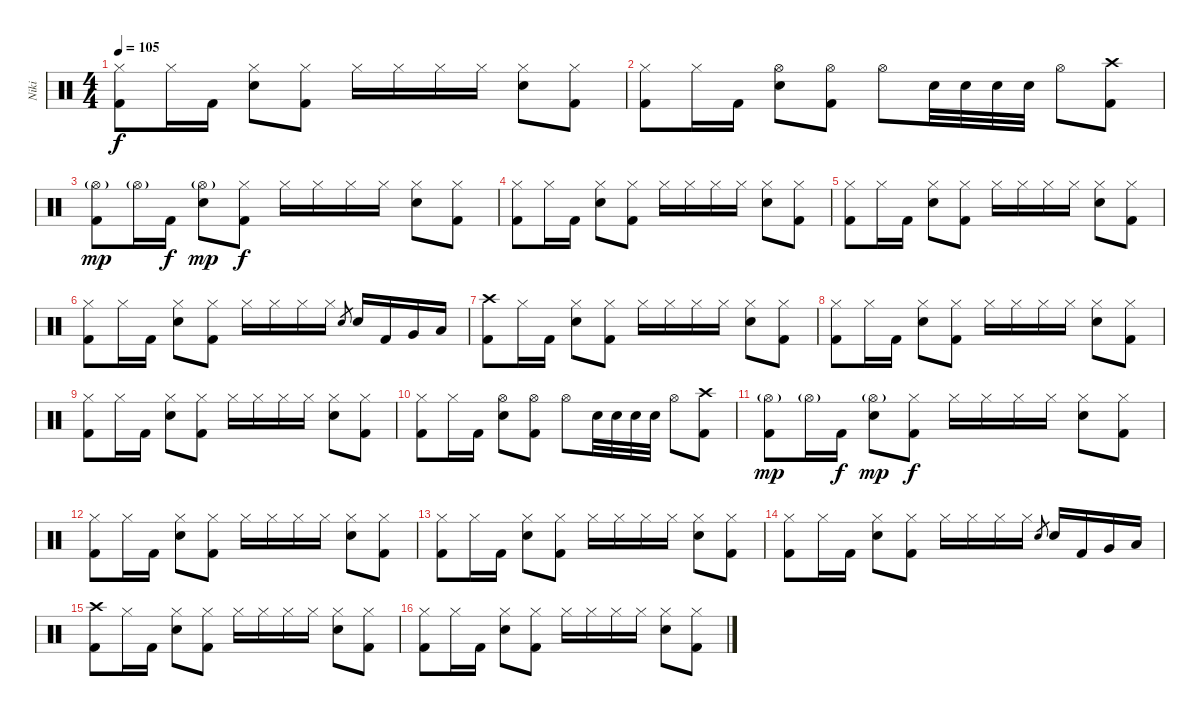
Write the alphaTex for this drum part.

\track ("Niki" "Niki") {instrument percussion}
\staff {score}
\articulation defaults
\ts (4 4)
\tempo 105
\clef neutral
\ks c
("Hi-Hat (closed)" "Kick (hit) 2").8{dy f} "Hi-Hat (closed)".16 "Kick (hit) 2".16 ("Hi-Hat (closed)" "Snare (hit) 2").8 ("Hi-Hat (closed)" "Kick (hit) 2").8 "Hi-Hat (closed)".16 "Hi-Hat (closed)".16 "Hi-Hat (closed)".16 "Hi-Hat (closed)".16 ("Hi-Hat (closed)" "Snare (hit) 2").8 ("Hi-Hat (closed)" "Kick (hit) 2").8 |
("Hi-Hat (closed)" "Kick (hit) 2").8 "Hi-Hat (closed)".16 "Kick (hit) 2".16 ("Hi-Hat (open)" "Snare (hit) 2").8 ("Hi-Hat (open)" "Kick (hit) 2").8 "Hi-Hat (open)".8 "Snare (hit) 2".32 "Snare (hit) 2".32 "Snare (hit) 2".32 "Snare (hit) 2".32 "Hi-Hat (open)".8 ("Crash high (hit)" "Kick (hit) 2").8 |
("Hi-Hat (open)"{g} "Kick (hit) 2").8{dy mp} "Hi-Hat (open)"{g}.16 "Kick (hit) 2".16{dy f} ("Hi-Hat (open)"{g} "Snare (hit) 2").8{dy mp} ("Hi-Hat (closed)" "Kick (hit) 2").8{dy f} "Hi-Hat (closed)".16 "Hi-Hat (closed)".16 "Hi-Hat (closed)".16 "Hi-Hat (closed)".16 ("Hi-Hat (closed)" "Snare (hit) 2").8 ("Hi-Hat (closed)" "Kick (hit) 2").8 |
("Hi-Hat (closed)" "Kick (hit) 2").8 "Hi-Hat (closed)".16 "Kick (hit) 2".16 ("Hi-Hat (closed)" "Snare (hit) 2").8 ("Hi-Hat (closed)" "Kick (hit) 2").8 "Hi-Hat (closed)".16 "Hi-Hat (closed)".16 "Hi-Hat (closed)".16 "Hi-Hat (closed)".16 ("Hi-Hat (closed)" "Snare (hit) 2").8 ("Hi-Hat (closed)" "Kick (hit) 2").8 |
("Hi-Hat (closed)" "Kick (hit) 2").8 "Hi-Hat (closed)".16 "Kick (hit) 2".16 ("Hi-Hat (closed)" "Snare (hit) 2").8 ("Hi-Hat (closed)" "Kick (hit) 2").8 "Hi-Hat (closed)".16 "Hi-Hat (closed)".16 "Hi-Hat (closed)".16 "Hi-Hat (closed)".16 ("Hi-Hat (closed)" "Snare (hit) 2").8 ("Hi-Hat (closed)" "Kick (hit) 2").8 |
("Hi-Hat (closed)" "Kick (hit) 2").8 "Hi-Hat (closed)".16 "Kick (hit) 2".16 ("Hi-Hat (closed)" "Snare (hit) 2").8 ("Hi-Hat (closed)" "Kick (hit) 2").8 "Hi-Hat (closed)".16 "Hi-Hat (closed)".16 "Hi-Hat (closed)".16 "Hi-Hat (closed)".16 "Snare (hit) 2".8{gr} "Snare (hit) 2".16 "Kick (hit) 2".16 "Very Low Tom (hit)".16 "Low Tom (hit)".16 |
("Crash high (hit)" "Kick (hit) 2").8 "Hi-Hat (closed)".16 "Kick (hit) 2".16 ("Hi-Hat (closed)" "Snare (hit) 2").8 ("Hi-Hat (closed)" "Kick (hit) 2").8 "Hi-Hat (closed)".16 "Hi-Hat (closed)".16 "Hi-Hat (closed)".16 "Hi-Hat (closed)".16 ("Hi-Hat (closed)" "Snare (hit) 2").8 ("Hi-Hat (closed)" "Kick (hit) 2").8 |
("Hi-Hat (closed)" "Kick (hit) 2").8 "Hi-Hat (closed)".16 "Kick (hit) 2".16 ("Hi-Hat (closed)" "Snare (hit) 2").8 ("Hi-Hat (closed)" "Kick (hit) 2").8 "Hi-Hat (closed)".16 "Hi-Hat (closed)".16 "Hi-Hat (closed)".16 "Hi-Hat (closed)".16 ("Hi-Hat (closed)" "Snare (hit) 2").8 ("Hi-Hat (closed)" "Kick (hit) 2").8 |
("Hi-Hat (closed)" "Kick (hit) 2").8 "Hi-Hat (closed)".16 "Kick (hit) 2".16 ("Hi-Hat (closed)" "Snare (hit) 2").8 ("Hi-Hat (closed)" "Kick (hit) 2").8 "Hi-Hat (closed)".16 "Hi-Hat (closed)".16 "Hi-Hat (closed)".16 "Hi-Hat (closed)".16 ("Hi-Hat (closed)" "Snare (hit) 2").8 ("Hi-Hat (closed)" "Kick (hit) 2").8 |
("Hi-Hat (closed)" "Kick (hit) 2").8 "Hi-Hat (closed)".16 "Kick (hit) 2".16 ("Hi-Hat (open)" "Snare (hit) 2").8 ("Hi-Hat (open)" "Kick (hit) 2").8 "Hi-Hat (open)".8 "Snare (hit) 2".32 "Snare (hit) 2".32 "Snare (hit) 2".32 "Snare (hit) 2".32 "Hi-Hat (open)".8 ("Crash high (hit)" "Kick (hit) 2").8 |
("Hi-Hat (open)"{g} "Kick (hit) 2").8{dy mp} "Hi-Hat (open)"{g}.16 "Kick (hit) 2".16{dy f} ("Hi-Hat (open)"{g} "Snare (hit) 2").8{dy mp} ("Hi-Hat (closed)" "Kick (hit) 2").8{dy f} "Hi-Hat (closed)".16 "Hi-Hat (closed)".16 "Hi-Hat (closed)".16 "Hi-Hat (closed)".16 ("Hi-Hat (closed)" "Snare (hit) 2").8 ("Hi-Hat (closed)" "Kick (hit) 2").8 |
("Hi-Hat (closed)" "Kick (hit) 2").8 "Hi-Hat (closed)".16 "Kick (hit) 2".16 ("Hi-Hat (closed)" "Snare (hit) 2").8 ("Hi-Hat (closed)" "Kick (hit) 2").8 "Hi-Hat (closed)".16 "Hi-Hat (closed)".16 "Hi-Hat (closed)".16 "Hi-Hat (closed)".16 ("Hi-Hat (closed)" "Snare (hit) 2").8 ("Hi-Hat (closed)" "Kick (hit) 2").8 |
("Hi-Hat (closed)" "Kick (hit) 2").8 "Hi-Hat (closed)".16 "Kick (hit) 2".16 ("Hi-Hat (closed)" "Snare (hit) 2").8 ("Hi-Hat (closed)" "Kick (hit) 2").8 "Hi-Hat (closed)".16 "Hi-Hat (closed)".16 "Hi-Hat (closed)".16 "Hi-Hat (closed)".16 ("Hi-Hat (closed)" "Snare (hit) 2").8 ("Hi-Hat (closed)" "Kick (hit) 2").8 |
("Hi-Hat (closed)" "Kick (hit) 2").8 "Hi-Hat (closed)".16 "Kick (hit) 2".16 ("Hi-Hat (closed)" "Snare (hit) 2").8 ("Hi-Hat (closed)" "Kick (hit) 2").8 "Hi-Hat (closed)".16 "Hi-Hat (closed)".16 "Hi-Hat (closed)".16 "Hi-Hat (closed)".16 "Snare (hit) 2".8{gr} "Snare (hit) 2".16 "Kick (hit) 2".16 "Very Low Tom (hit)".16 "Low Tom (hit)".16 |
("Crash high (hit)" "Kick (hit) 2").8 "Hi-Hat (closed)".16 "Kick (hit) 2".16 ("Hi-Hat (closed)" "Snare (hit) 2").8 ("Hi-Hat (closed)" "Kick (hit) 2").8 "Hi-Hat (closed)".16 "Hi-Hat (closed)".16 "Hi-Hat (closed)".16 "Hi-Hat (closed)".16 ("Hi-Hat (closed)" "Snare (hit) 2").8 ("Hi-Hat (closed)" "Kick (hit) 2").8 |
("Hi-Hat (closed)" "Kick (hit) 2").8 "Hi-Hat (closed)".16 "Kick (hit) 2".16 ("Hi-Hat (closed)" "Snare (hit) 2").8 ("Hi-Hat (closed)" "Kick (hit) 2").8 "Hi-Hat (closed)".16 "Hi-Hat (closed)".16 "Hi-Hat (closed)".16 "Hi-Hat (closed)".16 ("Hi-Hat (closed)" "Snare (hit) 2").8 ("Hi-Hat (closed)" "Kick (hit) 2").8
